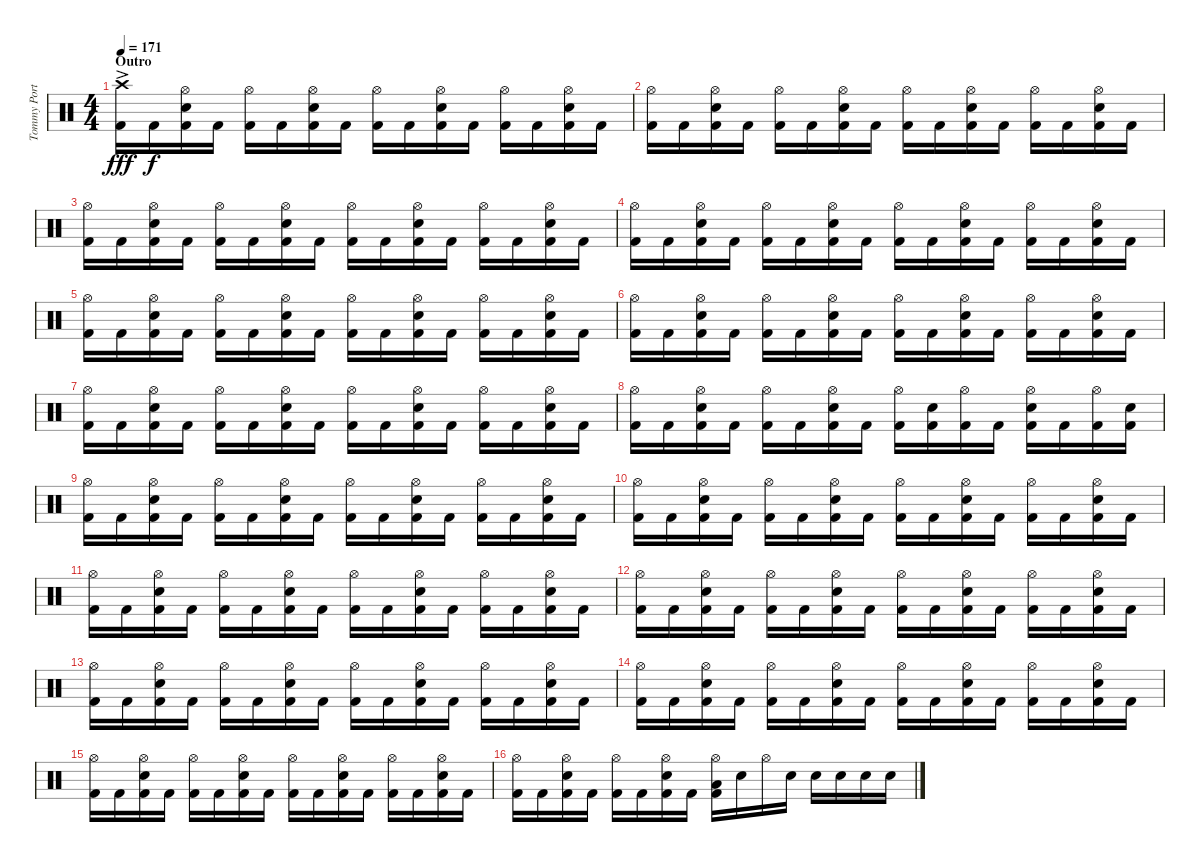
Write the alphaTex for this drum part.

\track ("Tommy Portino" "Tommy Port") {instrument percussion}
\staff {score}
\articulation defaults
\ts (4 4)
\section ("" "Outro")
\tempo 171
\clef neutral
\ks aminor
("Kick (hit) 2"{ac} "Crash high (hit)").16{dy fff} "Kick (hit) 2".16{dy f} ("Kick (hit) 2" "Electric Snare (hit)" "Hi-Hat (open)").16 "Kick (hit) 2".16 ("Kick (hit) 2" "Hi-Hat (open)").16 "Kick (hit) 2".16 ("Kick (hit) 2" "Electric Snare (hit)" "Hi-Hat (open)").16 "Kick (hit) 2".16 ("Kick (hit) 2" "Hi-Hat (open)").16 "Kick (hit) 2".16 ("Kick (hit) 2" "Electric Snare (hit)" "Hi-Hat (open)").16 "Kick (hit) 2".16 ("Kick (hit) 2" "Hi-Hat (open)").16 "Kick (hit) 2".16 ("Kick (hit) 2" "Electric Snare (hit)" "Hi-Hat (open)").16 "Kick (hit) 2".16 |
("Kick (hit) 2" "Hi-Hat (open)").16 "Kick (hit) 2".16 ("Kick (hit) 2" "Electric Snare (hit)" "Hi-Hat (open)").16 "Kick (hit) 2".16 ("Kick (hit) 2" "Hi-Hat (open)").16 "Kick (hit) 2".16 ("Kick (hit) 2" "Electric Snare (hit)" "Hi-Hat (open)").16 "Kick (hit) 2".16 ("Kick (hit) 2" "Hi-Hat (open)").16 "Kick (hit) 2".16 ("Kick (hit) 2" "Electric Snare (hit)" "Hi-Hat (open)").16 "Kick (hit) 2".16 ("Kick (hit) 2" "Hi-Hat (open)").16 "Kick (hit) 2".16 ("Kick (hit) 2" "Electric Snare (hit)" "Hi-Hat (open)").16 "Kick (hit) 2".16 |
("Kick (hit) 2" "Hi-Hat (open)").16 "Kick (hit) 2".16 ("Kick (hit) 2" "Electric Snare (hit)" "Hi-Hat (open)").16 "Kick (hit) 2".16 ("Kick (hit) 2" "Hi-Hat (open)").16 "Kick (hit) 2".16 ("Kick (hit) 2" "Electric Snare (hit)" "Hi-Hat (open)").16 "Kick (hit) 2".16 ("Kick (hit) 2" "Hi-Hat (open)").16 "Kick (hit) 2".16 ("Kick (hit) 2" "Electric Snare (hit)" "Hi-Hat (open)").16 "Kick (hit) 2".16 ("Kick (hit) 2" "Hi-Hat (open)").16 "Kick (hit) 2".16 ("Kick (hit) 2" "Electric Snare (hit)" "Hi-Hat (open)").16 "Kick (hit) 2".16 |
("Kick (hit) 2" "Hi-Hat (open)").16 "Kick (hit) 2".16 ("Kick (hit) 2" "Electric Snare (hit)" "Hi-Hat (open)").16 "Kick (hit) 2".16 ("Kick (hit) 2" "Hi-Hat (open)").16 "Kick (hit) 2".16 ("Kick (hit) 2" "Electric Snare (hit)" "Hi-Hat (open)").16 "Kick (hit) 2".16 ("Kick (hit) 2" "Hi-Hat (open)").16 "Kick (hit) 2".16 ("Kick (hit) 2" "Electric Snare (hit)" "Hi-Hat (open)").16 "Kick (hit) 2".16 ("Kick (hit) 2" "Hi-Hat (open)").16 "Kick (hit) 2".16 ("Kick (hit) 2" "Electric Snare (hit)" "Hi-Hat (open)").16 "Kick (hit) 2".16 |
("Kick (hit) 2" "Hi-Hat (open)").16 "Kick (hit) 2".16 ("Kick (hit) 2" "Electric Snare (hit)" "Hi-Hat (open)").16 "Kick (hit) 2".16 ("Kick (hit) 2" "Hi-Hat (open)").16 "Kick (hit) 2".16 ("Kick (hit) 2" "Electric Snare (hit)" "Hi-Hat (open)").16 "Kick (hit) 2".16 ("Kick (hit) 2" "Hi-Hat (open)").16 "Kick (hit) 2".16 ("Kick (hit) 2" "Electric Snare (hit)" "Hi-Hat (open)").16 "Kick (hit) 2".16 ("Kick (hit) 2" "Hi-Hat (open)").16 "Kick (hit) 2".16 ("Kick (hit) 2" "Electric Snare (hit)" "Hi-Hat (open)").16 "Kick (hit) 2".16 |
("Kick (hit) 2" "Hi-Hat (open)").16 "Kick (hit) 2".16 ("Kick (hit) 2" "Electric Snare (hit)" "Hi-Hat (open)").16 "Kick (hit) 2".16 ("Kick (hit) 2" "Hi-Hat (open)").16 "Kick (hit) 2".16 ("Kick (hit) 2" "Electric Snare (hit)" "Hi-Hat (open)").16 "Kick (hit) 2".16 ("Kick (hit) 2" "Hi-Hat (open)").16 "Kick (hit) 2".16 ("Kick (hit) 2" "Electric Snare (hit)" "Hi-Hat (open)").16 "Kick (hit) 2".16 ("Kick (hit) 2" "Hi-Hat (open)").16 "Kick (hit) 2".16 ("Kick (hit) 2" "Electric Snare (hit)" "Hi-Hat (open)").16 "Kick (hit) 2".16 |
("Kick (hit) 2" "Hi-Hat (open)").16 "Kick (hit) 2".16 ("Kick (hit) 2" "Electric Snare (hit)" "Hi-Hat (open)").16 "Kick (hit) 2".16 ("Kick (hit) 2" "Hi-Hat (open)").16 "Kick (hit) 2".16 ("Kick (hit) 2" "Electric Snare (hit)" "Hi-Hat (open)").16 "Kick (hit) 2".16 ("Kick (hit) 2" "Hi-Hat (open)").16 "Kick (hit) 2".16 ("Kick (hit) 2" "Electric Snare (hit)" "Hi-Hat (open)").16 "Kick (hit) 2".16 ("Kick (hit) 2" "Hi-Hat (open)").16 "Kick (hit) 2".16 ("Kick (hit) 2" "Electric Snare (hit)" "Hi-Hat (open)").16 "Kick (hit) 2".16 |
("Kick (hit) 2" "Hi-Hat (open)").16 "Kick (hit) 2".16 ("Kick (hit) 2" "Electric Snare (hit)" "Hi-Hat (open)").16 "Kick (hit) 2".16 ("Kick (hit) 2" "Hi-Hat (open)").16 "Kick (hit) 2".16 ("Kick (hit) 2" "Electric Snare (hit)" "Hi-Hat (open)").16 "Kick (hit) 2".16 ("Kick (hit) 2" "Hi-Hat (open)").16 ("Kick (hit) 2" "Electric Snare (hit)").16 ("Kick (hit) 2" "Hi-Hat (open)").16 "Kick (hit) 2".16 ("Kick (hit) 2" "Electric Snare (hit)" "Hi-Hat (open)").16 "Kick (hit) 2".16 ("Kick (hit) 2" "Hi-Hat (open)").16 ("Kick (hit) 2" "Electric Snare (hit)").16 |
("Kick (hit) 2" "Hi-Hat (open)").16 "Kick (hit) 2".16 ("Kick (hit) 2" "Electric Snare (hit)" "Hi-Hat (open)").16 "Kick (hit) 2".16 ("Kick (hit) 2" "Hi-Hat (open)").16 "Kick (hit) 2".16 ("Kick (hit) 2" "Electric Snare (hit)" "Hi-Hat (open)").16 "Kick (hit) 2".16 ("Kick (hit) 2" "Hi-Hat (open)").16 "Kick (hit) 2".16 ("Kick (hit) 2" "Electric Snare (hit)" "Hi-Hat (open)").16 "Kick (hit) 2".16 ("Kick (hit) 2" "Hi-Hat (open)").16 "Kick (hit) 2".16 ("Kick (hit) 2" "Electric Snare (hit)" "Hi-Hat (open)").16 "Kick (hit) 2".16 |
("Kick (hit) 2" "Hi-Hat (open)").16 "Kick (hit) 2".16 ("Kick (hit) 2" "Electric Snare (hit)" "Hi-Hat (open)").16 "Kick (hit) 2".16 ("Kick (hit) 2" "Hi-Hat (open)").16 "Kick (hit) 2".16 ("Kick (hit) 2" "Electric Snare (hit)" "Hi-Hat (open)").16 "Kick (hit) 2".16 ("Kick (hit) 2" "Hi-Hat (open)").16 "Kick (hit) 2".16 ("Kick (hit) 2" "Electric Snare (hit)" "Hi-Hat (open)").16 "Kick (hit) 2".16 ("Kick (hit) 2" "Hi-Hat (open)").16 "Kick (hit) 2".16 ("Kick (hit) 2" "Electric Snare (hit)" "Hi-Hat (open)").16 "Kick (hit) 2".16 |
("Kick (hit) 2" "Hi-Hat (open)").16 "Kick (hit) 2".16 ("Kick (hit) 2" "Electric Snare (hit)" "Hi-Hat (open)").16 "Kick (hit) 2".16 ("Kick (hit) 2" "Hi-Hat (open)").16 "Kick (hit) 2".16 ("Kick (hit) 2" "Electric Snare (hit)" "Hi-Hat (open)").16 "Kick (hit) 2".16 ("Kick (hit) 2" "Hi-Hat (open)").16 "Kick (hit) 2".16 ("Kick (hit) 2" "Electric Snare (hit)" "Hi-Hat (open)").16 "Kick (hit) 2".16 ("Kick (hit) 2" "Hi-Hat (open)").16 "Kick (hit) 2".16 ("Kick (hit) 2" "Electric Snare (hit)" "Hi-Hat (open)").16 "Kick (hit) 2".16 |
("Kick (hit) 2" "Hi-Hat (open)").16 "Kick (hit) 2".16 ("Kick (hit) 2" "Electric Snare (hit)" "Hi-Hat (open)").16 "Kick (hit) 2".16 ("Kick (hit) 2" "Hi-Hat (open)").16 "Kick (hit) 2".16 ("Kick (hit) 2" "Electric Snare (hit)" "Hi-Hat (open)").16 "Kick (hit) 2".16 ("Kick (hit) 2" "Hi-Hat (open)").16 "Kick (hit) 2".16 ("Kick (hit) 2" "Electric Snare (hit)" "Hi-Hat (open)").16 "Kick (hit) 2".16 ("Kick (hit) 2" "Hi-Hat (open)").16 "Kick (hit) 2".16 ("Kick (hit) 2" "Electric Snare (hit)" "Hi-Hat (open)").16 "Kick (hit) 2".16 |
("Kick (hit) 2" "Hi-Hat (open)").16 "Kick (hit) 2".16 ("Kick (hit) 2" "Electric Snare (hit)" "Hi-Hat (open)").16 "Kick (hit) 2".16 ("Kick (hit) 2" "Hi-Hat (open)").16 "Kick (hit) 2".16 ("Kick (hit) 2" "Electric Snare (hit)" "Hi-Hat (open)").16 "Kick (hit) 2".16 ("Kick (hit) 2" "Hi-Hat (open)").16 "Kick (hit) 2".16 ("Kick (hit) 2" "Electric Snare (hit)" "Hi-Hat (open)").16 "Kick (hit) 2".16 ("Kick (hit) 2" "Hi-Hat (open)").16 "Kick (hit) 2".16 ("Kick (hit) 2" "Electric Snare (hit)" "Hi-Hat (open)").16 "Kick (hit) 2".16 |
("Kick (hit) 2" "Hi-Hat (open)").16 "Kick (hit) 2".16 ("Kick (hit) 2" "Electric Snare (hit)" "Hi-Hat (open)").16 "Kick (hit) 2".16 ("Kick (hit) 2" "Hi-Hat (open)").16 "Kick (hit) 2".16 ("Kick (hit) 2" "Electric Snare (hit)" "Hi-Hat (open)").16 "Kick (hit) 2".16 ("Kick (hit) 2" "Hi-Hat (open)").16 "Kick (hit) 2".16 ("Kick (hit) 2" "Electric Snare (hit)" "Hi-Hat (open)").16 "Kick (hit) 2".16 ("Kick (hit) 2" "Hi-Hat (open)").16 "Kick (hit) 2".16 ("Kick (hit) 2" "Electric Snare (hit)" "Hi-Hat (open)").16 "Kick (hit) 2".16 |
("Kick (hit) 2" "Hi-Hat (open)").16 "Kick (hit) 2".16 ("Kick (hit) 2" "Electric Snare (hit)" "Hi-Hat (open)").16 "Kick (hit) 2".16 ("Kick (hit) 2" "Hi-Hat (open)").16 "Kick (hit) 2".16 ("Kick (hit) 2" "Electric Snare (hit)" "Hi-Hat (open)").16 "Kick (hit) 2".16 ("Kick (hit) 2" "Hi-Hat (open)").16 "Kick (hit) 2".16 ("Kick (hit) 2" "Electric Snare (hit)" "Hi-Hat (open)").16 "Kick (hit) 2".16 ("Kick (hit) 2" "Hi-Hat (open)").16 "Kick (hit) 2".16 ("Kick (hit) 2" "Electric Snare (hit)" "Hi-Hat (open)").16 "Kick (hit) 2".16 |
("Kick (hit) 2" "Hi-Hat (open)").16 "Kick (hit) 2".16 ("Kick (hit) 2" "Electric Snare (hit)" "Hi-Hat (open)").16 "Kick (hit) 2".16 ("Kick (hit) 2" "Hi-Hat (open)").16 "Kick (hit) 2".16 ("Kick (hit) 2" "Electric Snare (hit)" "Hi-Hat (open)").16 "Kick (hit) 2".16 ("Kick (hit) 2" "Low Floor Tom (hit)" "Hi-Hat (open)").16 "Electric Snare (hit)".16 "Hi-Hat (open)".16 "Electric Snare (hit)".16 "Electric Snare (hit)".16 "Electric Snare (hit)".16 "Electric Snare (hit)".16 "Electric Snare (hit)".16
